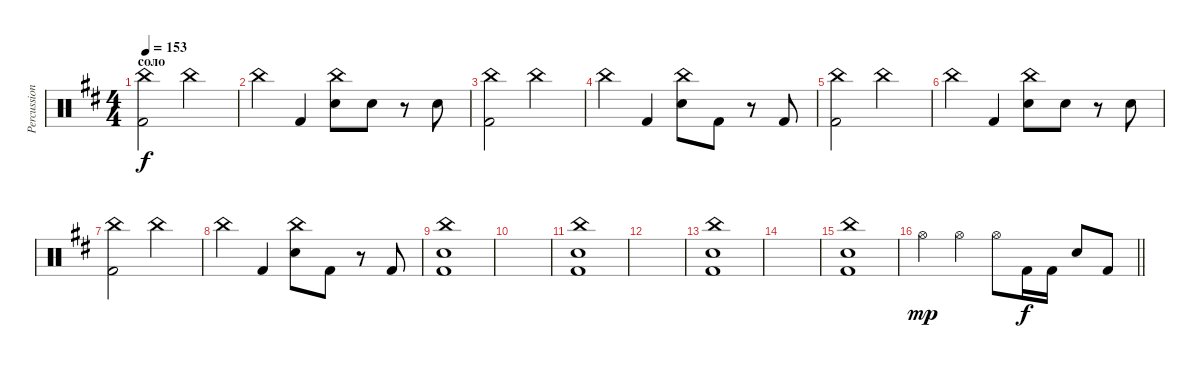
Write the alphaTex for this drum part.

\track ("Percussion" "Percussion") {instrument percussion}
\staff {score}
\articulation defaults
\ts (4 4)
\section ("" "соло")
\tempo 153
\clef neutral
\ks bminor
("Kick (hit) 2" "China (hit)").2{dy f} "China (hit)".2 |
"China (hit)".4 "Kick (hit) 2".4 ("China (hit)" "Electric Snare (hit)").8 "Electric Snare (hit)".8 r.8 "Electric Snare (hit)".8 |
("Kick (hit) 2" "China (hit)").2 "China (hit)".2 |
"China (hit)".4 "Kick (hit) 2".4 ("China (hit)" "Electric Snare (hit)").8 "Kick (hit) 2".8 r.8 "Kick (hit) 2".8 |
("Kick (hit) 2" "China (hit)").2 "China (hit)".2 |
"China (hit)".4 "Kick (hit) 2".4 ("China (hit)" "Electric Snare (hit)").8 "Electric Snare (hit)".8 r.8 "Electric Snare (hit)".8 |
("Kick (hit) 2" "China (hit)").2 "China (hit)".2 |
"China (hit)".4 "Kick (hit) 2".4 ("China (hit)" "Electric Snare (hit)").8 "Kick (hit) 2".8 r.8 "Kick (hit) 2".8 |
("Kick (hit) 2" "Electric Snare (hit)" "China (hit)").1 |
|
("Kick (hit) 2" "Electric Snare (hit)" "China (hit)").1 |
|
("Kick (hit) 2" "Electric Snare (hit)" "China (hit)").1 |
|
("Kick (hit) 2" "Electric Snare (hit)" "China (hit)").1 |
\barLineRight lightlight "Hi-Hat (open)".4{dy mp} "Hi-Hat (open)".4 "Hi-Hat (open)".8 "Kick (hit) 2".16{dy f} "Kick (hit) 2".16 "Electric Snare (hit)".8 "Kick (hit) 2".8
